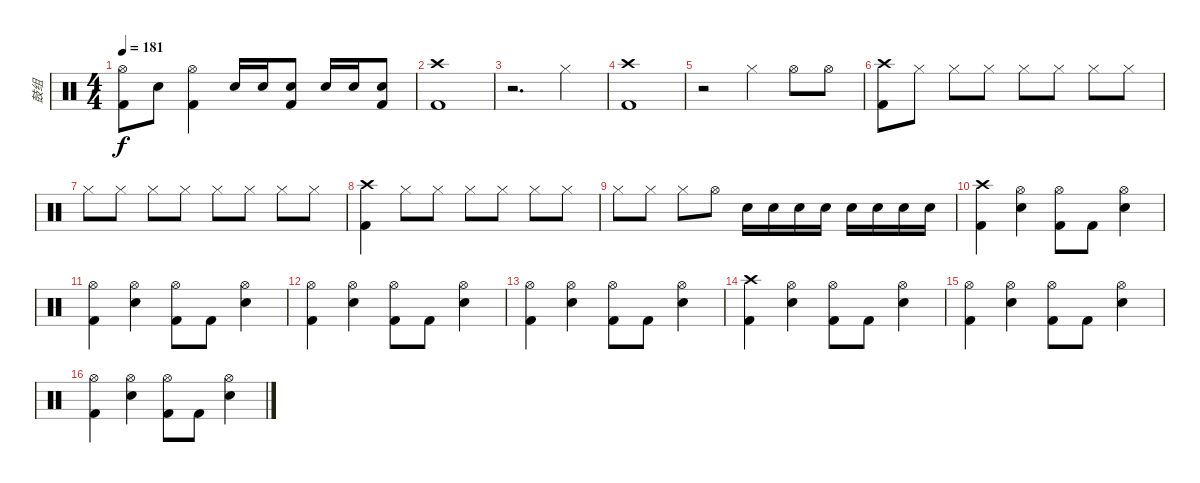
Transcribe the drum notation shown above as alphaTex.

\track ("鼓组" "鼓组") {instrument percussion}
\staff {score}
\articulation defaults
\ts (4 4)
\tempo 181
\clef neutral
\ks c
("Hi-Hat (open)" "Kick (hit) 2").8{dy f} "Snare (hit) 2".8 ("Hi-Hat (open)" "Kick (hit) 2").4 "Snare (hit) 2".16 "Snare (hit) 2".16 ("Snare (hit) 2" "Kick (hit) 2").8 "Snare (hit) 2".16 "Snare (hit) 2".16 ("Snare (hit) 2" "Kick (hit) 2").8 |
("Crash high (hit)" "Kick (hit) 2").1 |
r.2{d} "Hi-Hat (closed)".4 |
("Crash high (hit)" "Kick (hit) 2").1 |
r.2 "Hi-Hat (closed)".4 "Hi-Hat (open)".8 "Hi-Hat (open)".8 |
("Crash high (hit)" "Kick (hit) 2").8 "Hi-Hat (closed)".8 "Hi-Hat (closed)".8 "Hi-Hat (closed)".8 "Hi-Hat (closed)".8 "Hi-Hat (closed)".8 "Hi-Hat (closed)".8 "Hi-Hat (closed)".8 |
"Hi-Hat (closed)".8 "Hi-Hat (closed)".8 "Hi-Hat (closed)".8 "Hi-Hat (closed)".8 "Hi-Hat (closed)".8 "Hi-Hat (closed)".8 "Hi-Hat (closed)".8 "Hi-Hat (closed)".8 |
("Crash high (hit)" "Kick (hit) 2").4 "Hi-Hat (closed)".8 "Hi-Hat (closed)".8 "Hi-Hat (closed)".8 "Hi-Hat (closed)".8 "Hi-Hat (closed)".8 "Hi-Hat (closed)".8 |
"Hi-Hat (closed)".8 "Hi-Hat (closed)".8 "Hi-Hat (closed)".8 "Hi-Hat (open)".8 "Snare (hit) 2".16 "Snare (hit) 2".16 "Snare (hit) 2".16 "Snare (hit) 2".16 "Snare (hit) 2".16 "Snare (hit) 2".16 "Snare (hit) 2".16 "Snare (hit) 2".16 |
("Crash high (hit)" "Kick (hit) 2").4 ("Hi-Hat (open)" "Snare (hit) 2").4 ("Hi-Hat (open)" "Kick (hit) 2").8 "Kick (hit) 2".8 ("Hi-Hat (open)" "Snare (hit) 2").4 |
("Hi-Hat (open)" "Kick (hit) 2").4 ("Hi-Hat (open)" "Snare (hit) 2").4 ("Hi-Hat (open)" "Kick (hit) 2").8 "Kick (hit) 2".8 ("Hi-Hat (open)" "Snare (hit) 2").4 |
("Hi-Hat (open)" "Kick (hit) 2").4 ("Hi-Hat (open)" "Snare (hit) 2").4 ("Hi-Hat (open)" "Kick (hit) 2").8 "Kick (hit) 2".8 ("Hi-Hat (open)" "Snare (hit) 2").4 |
("Hi-Hat (open)" "Kick (hit) 2").4 ("Hi-Hat (open)" "Snare (hit) 2").4 ("Hi-Hat (open)" "Kick (hit) 2").8 "Kick (hit) 2".8 ("Hi-Hat (open)" "Snare (hit) 2").4 |
("Crash high (hit)" "Kick (hit) 2").4 ("Hi-Hat (open)" "Snare (hit) 2").4 ("Hi-Hat (open)" "Kick (hit) 2").8 "Kick (hit) 2".8 ("Hi-Hat (open)" "Snare (hit) 2").4 |
("Hi-Hat (open)" "Kick (hit) 2").4 ("Hi-Hat (open)" "Snare (hit) 2").4 ("Hi-Hat (open)" "Kick (hit) 2").8 "Kick (hit) 2".8 ("Hi-Hat (open)" "Snare (hit) 2").4 |
("Hi-Hat (open)" "Kick (hit) 2").4 ("Hi-Hat (open)" "Snare (hit) 2").4 ("Hi-Hat (open)" "Kick (hit) 2").8 "Kick (hit) 2".8 ("Hi-Hat (open)" "Snare (hit) 2").4
